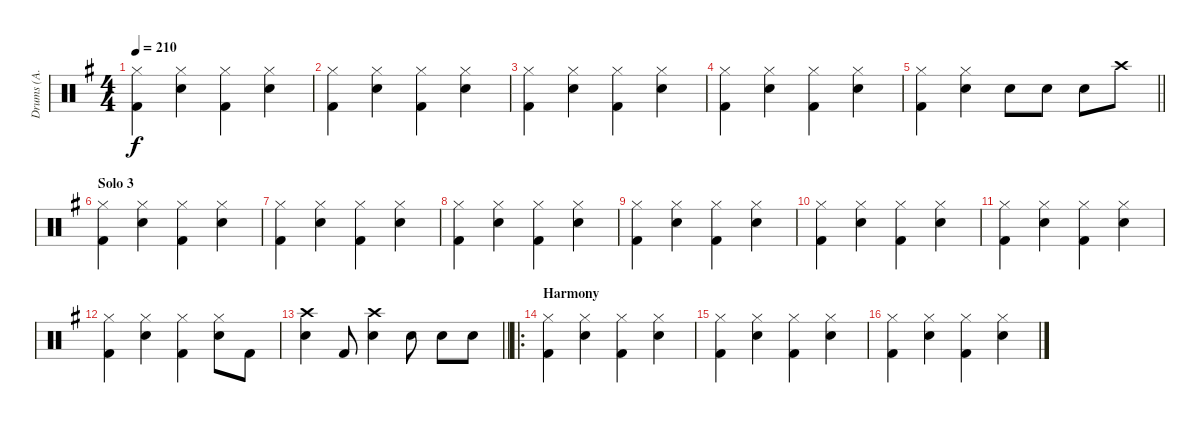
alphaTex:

\track ("Drums (А. Манякин)" "Drums (А. ") {instrument percussion}
\staff {score}
\articulation defaults
\ts (4 4)
\tempo 210
\clef neutral
\ks g
("Hi-Hat (closed)" "Kick (hit) 2").4{dy f} ("Hi-Hat (closed)" "Snare (hit) 2").4 ("Hi-Hat (closed)" "Kick (hit) 2").4 ("Hi-Hat (closed)" "Snare (hit) 2").4 |
("Hi-Hat (closed)" "Kick (hit) 2").4 ("Hi-Hat (closed)" "Snare (hit) 2").4 ("Hi-Hat (closed)" "Kick (hit) 2").4 ("Hi-Hat (closed)" "Snare (hit) 2").4 |
("Hi-Hat (closed)" "Kick (hit) 2").4 ("Hi-Hat (closed)" "Snare (hit) 2").4 ("Hi-Hat (closed)" "Kick (hit) 2").4 ("Hi-Hat (closed)" "Snare (hit) 2").4 |
("Hi-Hat (closed)" "Kick (hit) 2").4 ("Hi-Hat (closed)" "Snare (hit) 2").4 ("Hi-Hat (closed)" "Kick (hit) 2").4 ("Hi-Hat (closed)" "Snare (hit) 2").4 |
\barLineRight lightlight
("Hi-Hat (closed)" "Kick (hit) 2").4 ("Hi-Hat (closed)" "Snare (hit) 2").4 "Snare (hit) 2".8 "Snare (hit) 2".8 "Snare (hit) 2".8 "Crash high (hit)".8 |
\section ("" "Solo 3")
("Hi-Hat (closed)" "Kick (hit) 2").4 ("Hi-Hat (closed)" "Snare (hit) 2").4 ("Hi-Hat (closed)" "Kick (hit) 2").4 ("Hi-Hat (closed)" "Snare (hit) 2").4 |
("Hi-Hat (closed)" "Kick (hit) 2").4 ("Hi-Hat (closed)" "Snare (hit) 2").4 ("Hi-Hat (closed)" "Kick (hit) 2").4 ("Hi-Hat (closed)" "Snare (hit) 2").4 |
("Hi-Hat (closed)" "Kick (hit) 2").4 ("Hi-Hat (closed)" "Snare (hit) 2").4 ("Hi-Hat (closed)" "Kick (hit) 2").4 ("Hi-Hat (closed)" "Snare (hit) 2").4 |
("Hi-Hat (closed)" "Kick (hit) 2").4 ("Hi-Hat (closed)" "Snare (hit) 2").4 ("Hi-Hat (closed)" "Kick (hit) 2").4 ("Hi-Hat (closed)" "Snare (hit) 2").4 |
("Hi-Hat (closed)" "Kick (hit) 2").4 ("Hi-Hat (closed)" "Snare (hit) 2").4 ("Hi-Hat (closed)" "Kick (hit) 2").4 ("Hi-Hat (closed)" "Snare (hit) 2").4 |
("Hi-Hat (closed)" "Kick (hit) 2").4 ("Hi-Hat (closed)" "Snare (hit) 2").4 ("Hi-Hat (closed)" "Kick (hit) 2").4 ("Hi-Hat (closed)" "Snare (hit) 2").4 |
("Hi-Hat (closed)" "Kick (hit) 2").4 ("Hi-Hat (closed)" "Snare (hit) 2").4 ("Hi-Hat (closed)" "Kick (hit) 2").4 ("Hi-Hat (closed)" "Snare (hit) 2").8 "Kick (hit) 2".8 |
\barLineRight lightlight
("Crash high (hit)" "Snare (hit) 2").4 "Kick (hit) 2".8 ("Crash high (hit)" "Snare (hit) 2").4 "Snare (hit) 2".8 "Snare (hit) 2".8 "Snare (hit) 2".8 |
\ro
\section ("" "Harmony")
("Hi-Hat (closed)" "Kick (hit) 2").4 ("Hi-Hat (closed)" "Snare (hit) 2").4 ("Hi-Hat (closed)" "Kick (hit) 2").4 ("Hi-Hat (closed)" "Snare (hit) 2").4 |
("Hi-Hat (closed)" "Kick (hit) 2").4 ("Hi-Hat (closed)" "Snare (hit) 2").4 ("Hi-Hat (closed)" "Kick (hit) 2").4 ("Hi-Hat (closed)" "Snare (hit) 2").4 |
("Hi-Hat (closed)" "Kick (hit) 2").4 ("Hi-Hat (closed)" "Snare (hit) 2").4 ("Hi-Hat (closed)" "Kick (hit) 2").4 ("Hi-Hat (closed)" "Snare (hit) 2").4
